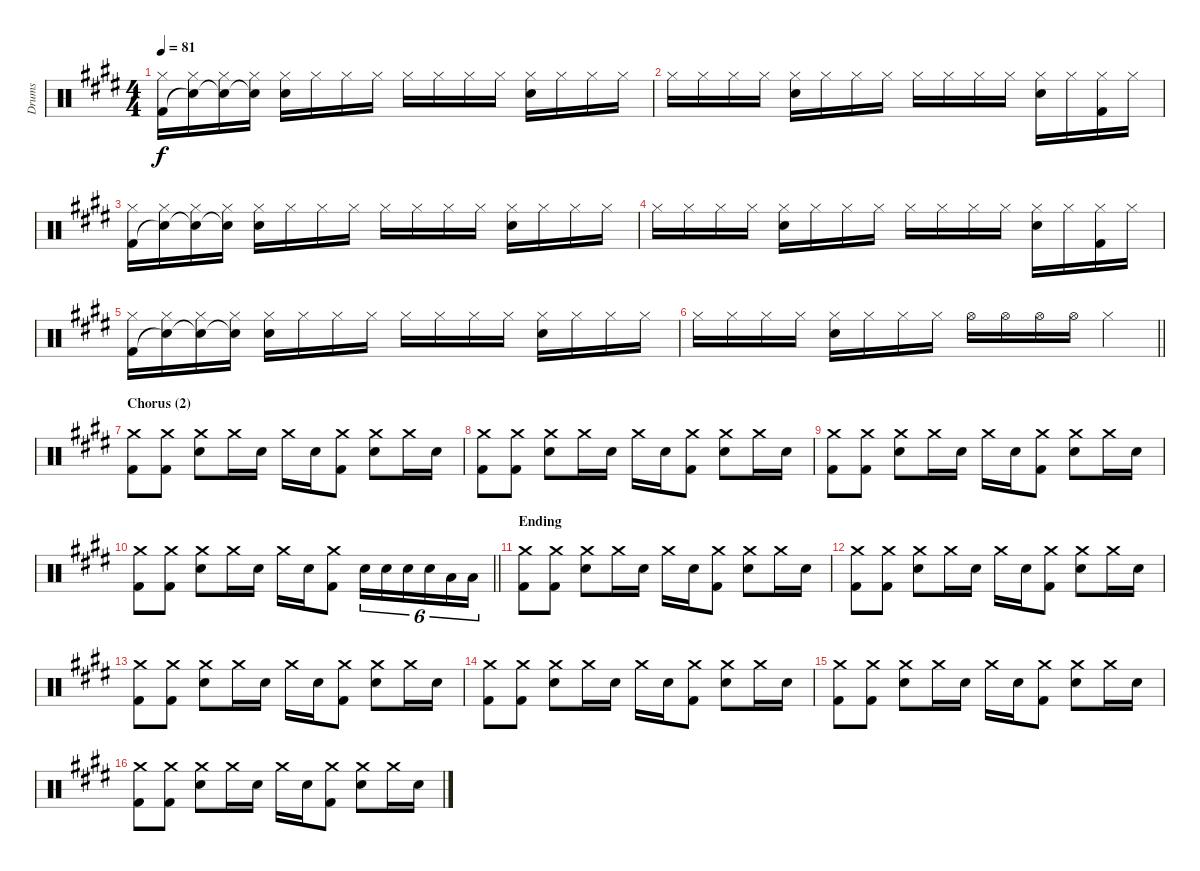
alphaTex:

\track ("Drums" "Drums") {instrument percussion}
\staff {score}
\articulation defaults
\ts (4 4)
\tempo 81
\clef neutral
\ks c#minor
("Hi-Hat (closed)" "Kick (hit) 2").16{dy f} ("Hi-Hat (closed)" "Snare (hit)"{t}).16 ("Hi-Hat (closed)" "Snare (hit)"{t}).16 ("Hi-Hat (closed)" "Snare (hit)"{t}).16 ("Hi-Hat (closed)" "Electric Snare (hit)").16 "Hi-Hat (closed)".16 "Hi-Hat (closed)".16 "Hi-Hat (closed)".16 "Hi-Hat (closed)".16 "Hi-Hat (closed)".16 "Hi-Hat (closed)".16 "Hi-Hat (closed)".16 ("Hi-Hat (closed)" "Electric Snare (hit)").16 "Hi-Hat (closed)".16 "Hi-Hat (closed)".16 "Hi-Hat (closed)".16 |
"Hi-Hat (closed)".16 "Hi-Hat (closed)".16 "Hi-Hat (closed)".16 "Hi-Hat (closed)".16 ("Hi-Hat (closed)" "Electric Snare (hit)").16 "Hi-Hat (closed)".16 "Hi-Hat (closed)".16 "Hi-Hat (closed)".16 "Hi-Hat (closed)".16 "Hi-Hat (closed)".16 "Hi-Hat (closed)".16 "Hi-Hat (closed)".16 ("Hi-Hat (closed)" "Electric Snare (hit)").16 "Hi-Hat (closed)".16 ("Hi-Hat (closed)" "Kick (hit) 2").16 "Hi-Hat (closed)".16 |
("Hi-Hat (closed)" "Kick (hit) 2").16 ("Hi-Hat (closed)" "Snare (hit)"{t}).16 ("Hi-Hat (closed)" "Snare (hit)"{t}).16 ("Hi-Hat (closed)" "Snare (hit)"{t}).16 ("Hi-Hat (closed)" "Electric Snare (hit)").16 "Hi-Hat (closed)".16 "Hi-Hat (closed)".16 "Hi-Hat (closed)".16 "Hi-Hat (closed)".16 "Hi-Hat (closed)".16 "Hi-Hat (closed)".16 "Hi-Hat (closed)".16 ("Hi-Hat (closed)" "Electric Snare (hit)").16 "Hi-Hat (closed)".16 "Hi-Hat (closed)".16 "Hi-Hat (closed)".16 |
"Hi-Hat (closed)".16 "Hi-Hat (closed)".16 "Hi-Hat (closed)".16 "Hi-Hat (closed)".16 ("Hi-Hat (closed)" "Electric Snare (hit)").16 "Hi-Hat (closed)".16 "Hi-Hat (closed)".16 "Hi-Hat (closed)".16 "Hi-Hat (closed)".16 "Hi-Hat (closed)".16 "Hi-Hat (closed)".16 "Hi-Hat (closed)".16 ("Hi-Hat (closed)" "Electric Snare (hit)").16 "Hi-Hat (closed)".16 ("Hi-Hat (closed)" "Kick (hit) 2").16 "Hi-Hat (closed)".16 |
("Hi-Hat (closed)" "Kick (hit) 2").16 ("Hi-Hat (closed)" "Snare (hit)"{t}).16 ("Hi-Hat (closed)" "Snare (hit)"{t}).16 ("Hi-Hat (closed)" "Snare (hit)"{t}).16 ("Hi-Hat (closed)" "Electric Snare (hit)").16 "Hi-Hat (closed)".16 "Hi-Hat (closed)".16 "Hi-Hat (closed)".16 "Hi-Hat (closed)".16 "Hi-Hat (closed)".16 "Hi-Hat (closed)".16 "Hi-Hat (closed)".16 ("Hi-Hat (closed)" "Electric Snare (hit)").16 "Hi-Hat (closed)".16 "Hi-Hat (closed)".16 "Hi-Hat (closed)".16 |
\barLineRight lightlight "Hi-Hat (closed)".16 "Hi-Hat (closed)".16 "Hi-Hat (closed)".16 "Hi-Hat (closed)".16
("Hi-Hat (closed)" "Electric Snare (hit)").16 "Hi-Hat (closed)".16 "Hi-Hat (closed)".16 "Hi-Hat (closed)".16 "Hi-Hat (open)".16 "Hi-Hat (open)".16 "Hi-Hat (open)".16 "Hi-Hat (open)".16 "Hi-Hat (closed)".4 |
\section ("" "Chorus (2)")
("Crash medium (hit)" "Kick (hit) 2").8 ("Crash medium (hit)" "Kick (hit) 2").8 ("Crash medium (hit)" "Electric Snare (hit)").8 "Crash medium (hit)".16 "Electric Snare (hit)".16 "Crash medium (hit)".16 "Electric Snare (hit)".16 ("Crash medium (hit)" "Kick (hit) 2").8 ("Crash medium (hit)" "Electric Snare (hit)").8 "Crash medium (hit)".16 "Electric Snare (hit)".16 |
("Crash medium (hit)" "Kick (hit) 2").8 ("Crash medium (hit)" "Kick (hit) 2").8 ("Crash medium (hit)" "Electric Snare (hit)").8 "Crash medium (hit)".16 "Electric Snare (hit)".16 "Crash medium (hit)".16 "Electric Snare (hit)".16 ("Crash medium (hit)" "Kick (hit) 2").8 ("Crash medium (hit)" "Electric Snare (hit)").8 "Crash medium (hit)".16 "Electric Snare (hit)".16 |
("Crash medium (hit)" "Kick (hit) 2").8 ("Crash medium (hit)" "Kick (hit) 2").8 ("Crash medium (hit)" "Electric Snare (hit)").8 "Crash medium (hit)".16 "Electric Snare (hit)".16 "Crash medium (hit)".16 "Electric Snare (hit)".16 ("Crash medium (hit)" "Kick (hit) 2").8 ("Crash medium (hit)" "Electric Snare (hit)").8 "Crash medium (hit)".16 "Electric Snare (hit)".16 |
\barLineRight lightlight
("Crash medium (hit)" "Kick (hit) 2").8 ("Crash medium (hit)" "Kick (hit) 2").8 ("Crash medium (hit)" "Electric Snare (hit)").8 "Crash medium (hit)".16 "Electric Snare (hit)".16 "Crash medium (hit)".16 "Electric Snare (hit)".16 ("Crash medium (hit)" "Kick (hit) 2").8 "Electric Snare (hit)".16{tu (6 4)} "Electric Snare (hit)".16{tu (6 4)} "Electric Snare (hit)".16{tu (6 4)} "Electric Snare (hit)".16{tu (6 4)} "Low Tom (hit)".16{tu (6 4)} "Low Tom (hit)".16{tu (6 4)} |
\section ("" "Ending")
("Crash medium (hit)" "Kick (hit) 2").8 ("Crash medium (hit)" "Kick (hit) 2").8 ("Crash medium (hit)" "Electric Snare (hit)").8 "Crash medium (hit)".16 "Electric Snare (hit)".16 "Crash medium (hit)".16 "Electric Snare (hit)".16 ("Crash medium (hit)" "Kick (hit) 2").8 ("Crash medium (hit)" "Electric Snare (hit)").8 "Crash medium (hit)".16 "Electric Snare (hit)".16 |
("Crash medium (hit)" "Kick (hit) 2").8 ("Crash medium (hit)" "Kick (hit) 2").8 ("Crash medium (hit)" "Electric Snare (hit)").8 "Crash medium (hit)".16 "Electric Snare (hit)".16 "Crash medium (hit)".16 "Electric Snare (hit)".16 ("Crash medium (hit)" "Kick (hit) 2").8 ("Crash medium (hit)" "Electric Snare (hit)").8 "Crash medium (hit)".16 "Electric Snare (hit)".16 |
("Crash medium (hit)" "Kick (hit) 2").8 ("Crash medium (hit)" "Kick (hit) 2").8 ("Crash medium (hit)" "Electric Snare (hit)").8 "Crash medium (hit)".16 "Electric Snare (hit)".16 "Crash medium (hit)".16 "Electric Snare (hit)".16 ("Crash medium (hit)" "Kick (hit) 2").8 ("Crash medium (hit)" "Electric Snare (hit)").8 "Crash medium (hit)".16 "Electric Snare (hit)".16 |
("Crash medium (hit)" "Kick (hit) 2").8 ("Crash medium (hit)" "Kick (hit) 2").8 ("Crash medium (hit)" "Electric Snare (hit)").8 "Crash medium (hit)".16 "Electric Snare (hit)".16 "Crash medium (hit)".16 "Electric Snare (hit)".16 ("Crash medium (hit)" "Kick (hit) 2").8 ("Crash medium (hit)" "Electric Snare (hit)").8 "Crash medium (hit)".16 "Electric Snare (hit)".16 |
("Crash medium (hit)" "Kick (hit) 2").8 ("Crash medium (hit)" "Kick (hit) 2").8 ("Crash medium (hit)" "Electric Snare (hit)").8 "Crash medium (hit)".16 "Electric Snare (hit)".16 "Crash medium (hit)".16 "Electric Snare (hit)".16 ("Crash medium (hit)" "Kick (hit) 2").8 ("Crash medium (hit)" "Electric Snare (hit)").8 "Crash medium (hit)".16 "Electric Snare (hit)".16 |
("Crash medium (hit)" "Kick (hit) 2").8 ("Crash medium (hit)" "Kick (hit) 2").8 ("Crash medium (hit)" "Electric Snare (hit)").8 "Crash medium (hit)".16 "Electric Snare (hit)".16 "Crash medium (hit)".16 "Electric Snare (hit)".16 ("Crash medium (hit)" "Kick (hit) 2").8 ("Crash medium (hit)" "Electric Snare (hit)").8 "Crash medium (hit)".16 "Electric Snare (hit)".16
